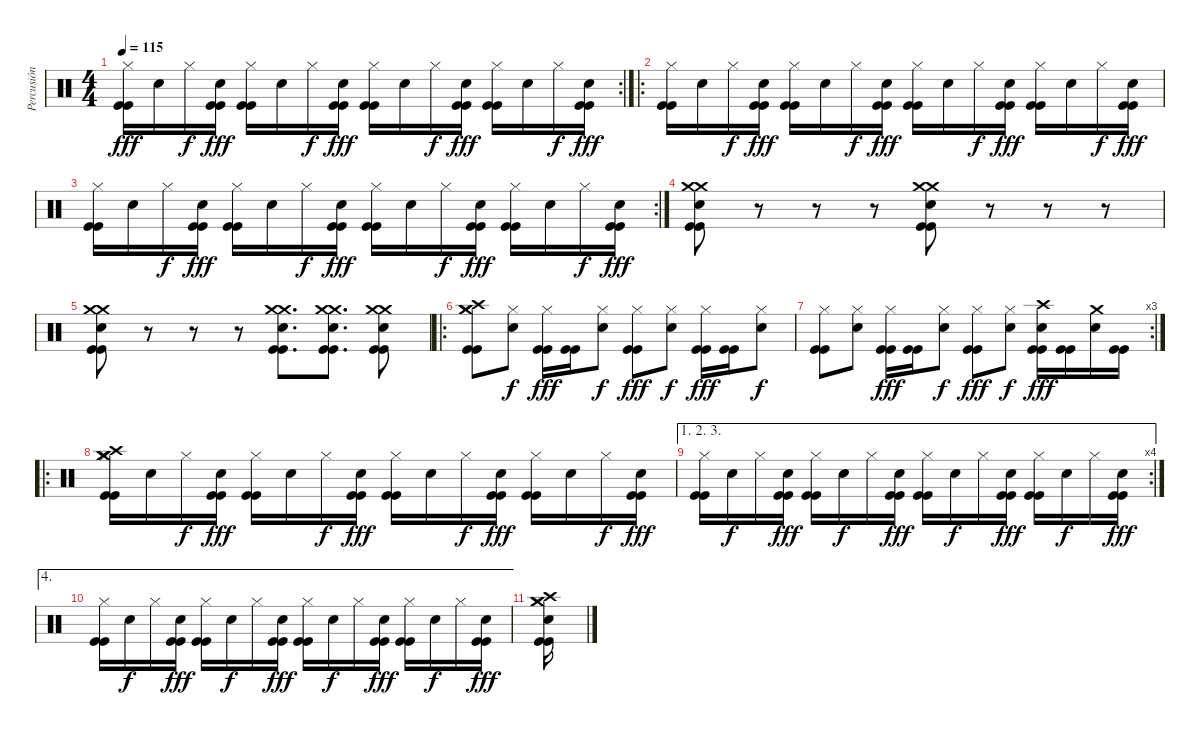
\track ("Percusión" "Percusión") {instrument percussion}
\staff {score}
\articulation defaults
\rc 2
\ts (4 4)
\tempo 115
\clef neutral
\ks c
("Kick (hit)" "Kick (hit)" "Hi-Hat (closed)").16{dy fff} "Electric Snare (hit)".16 "Hi-Hat (closed)".16{dy f} ("Kick (hit)" "Kick (hit)" "Electric Snare (hit)").16{dy fff} ("Kick (hit)" "Kick (hit)" "Hi-Hat (closed)").16 "Electric Snare (hit)".16 "Hi-Hat (closed)".16{dy f} ("Kick (hit)" "Kick (hit)" "Electric Snare (hit)").16{dy fff} ("Kick (hit)" "Kick (hit)" "Hi-Hat (closed)").16 "Electric Snare (hit)".16 "Hi-Hat (closed)".16{dy f} ("Kick (hit)" "Kick (hit)" "Electric Snare (hit)").16{dy fff} ("Kick (hit)" "Kick (hit)" "Hi-Hat (closed)").16 "Electric Snare (hit)".16 "Hi-Hat (closed)".16{dy f} ("Kick (hit)" "Kick (hit)" "Electric Snare (hit)").16{dy fff} |
\ro
("Kick (hit)" "Kick (hit)" "Hi-Hat (closed)").16 "Electric Snare (hit)".16 "Hi-Hat (closed)".16{dy f} ("Kick (hit)" "Kick (hit)" "Electric Snare (hit)").16{dy fff} ("Kick (hit)" "Kick (hit)" "Hi-Hat (closed)").16 "Electric Snare (hit)".16 "Hi-Hat (closed)".16{dy f} ("Kick (hit)" "Kick (hit)" "Electric Snare (hit)").16{dy fff} ("Kick (hit)" "Kick (hit)" "Hi-Hat (closed)").16 "Electric Snare (hit)".16 "Hi-Hat (closed)".16{dy f} ("Kick (hit)" "Kick (hit)" "Electric Snare (hit)").16{dy fff} ("Kick (hit)" "Kick (hit)" "Hi-Hat (closed)").16 "Electric Snare (hit)".16 "Hi-Hat (closed)".16{dy f} ("Kick (hit)" "Kick (hit)" "Electric Snare (hit)").16{dy fff} |
\rc 2
("Kick (hit)" "Kick (hit)" "Hi-Hat (closed)").16 "Electric Snare (hit)".16 "Hi-Hat (closed)".16{dy f} ("Kick (hit)" "Kick (hit)" "Electric Snare (hit)").16{dy fff} ("Kick (hit)" "Kick (hit)" "Hi-Hat (closed)").16 "Electric Snare (hit)".16 "Hi-Hat (closed)".16{dy f} ("Kick (hit)" "Kick (hit)" "Electric Snare (hit)").16{dy fff} ("Kick (hit)" "Kick (hit)" "Hi-Hat (closed)").16 "Electric Snare (hit)".16 "Hi-Hat (closed)".16{dy f} ("Kick (hit)" "Kick (hit)" "Electric Snare (hit)").16{dy fff} ("Kick (hit)" "Kick (hit)" "Hi-Hat (closed)").16 "Electric Snare (hit)".16 "Hi-Hat (closed)".16{dy f} ("Kick (hit)" "Kick (hit)" "Electric Snare (hit)").16{dy fff} |
("Kick (hit)" "Kick (hit)" "Crash medium (hit)" "Crash medium (hit)" "Electric Snare (hit)").8 r.8 r.8 r.8 ("Kick (hit)" "Kick (hit)" "Crash medium (hit)" "Crash medium (hit)" "Electric Snare (hit)").8 r.8 r.8 r.8 |
("Kick (hit)" "Kick (hit)" "Crash medium (hit)" "Crash medium (hit)" "Electric Snare (hit)").8 r.8 r.8 r.8 ("Kick (hit)" "Kick (hit)" "Crash medium (hit)" "Crash medium (hit)" "Electric Snare (hit)").8{d} ("Kick (hit)" "Kick (hit)" "Crash medium (hit)" "Crash medium (hit)" "Electric Snare (hit)").8{d} ("Kick (hit)" "Kick (hit)" "Crash medium (hit)" "Crash medium (hit)" "Electric Snare (hit)").8 |
\ro
("Kick (hit)" "Kick (hit)" "Crash medium (hit)" "Crash medium (hit)" "Crash high (hit)").8 ("Hi-Hat (closed)" "Electric Snare (hit)").8{dy f} ("Kick (hit)" "Kick (hit)" "Hi-Hat (closed)").16{dy fff} ("Kick (hit)" "Kick (hit)").16 ("Hi-Hat (closed)" "Electric Snare (hit)").8{dy f} ("Kick (hit)" "Kick (hit)" "Hi-Hat (closed)").8{dy fff} ("Hi-Hat (closed)" "Electric Snare (hit)").8{dy f} ("Kick (hit)" "Kick (hit)" "Hi-Hat (closed)").16{dy fff} ("Kick (hit)" "Kick (hit)").16 ("Hi-Hat (closed)" "Electric Snare (hit)").8{dy f} |
\rc 3
("Kick (hit)" "Kick (hit)" "Hi-Hat (closed)").8 ("Hi-Hat (closed)" "Electric Snare (hit)").8 ("Kick (hit)" "Kick (hit)" "Hi-Hat (closed)").16{dy fff} ("Kick (hit)" "Kick (hit)").16 ("Hi-Hat (closed)" "Electric Snare (hit)").8{dy f} ("Kick (hit)" "Kick (hit)" "Hi-Hat (closed)").8{dy fff} ("Hi-Hat (closed)" "Electric Snare (hit)").8{dy f} ("Kick (hit)" "Kick (hit)" "Crash high (hit)" "Electric Snare (hit)").16{dy fff} ("Kick (hit)" "Kick (hit)").16 ("Crash medium (hit)" "Electric Snare (hit)").16 ("Kick (hit)" "Kick (hit)").16 |
\ro
("Kick (hit)" "Kick (hit)" "Crash medium (hit)" "Crash medium (hit)" "Crash high (hit)" "Hi-Hat (closed)").16 "Electric Snare (hit)".16 "Hi-Hat (closed)".16{dy f} ("Kick (hit)" "Kick (hit)" "Electric Snare (hit)").16{dy fff} ("Kick (hit)" "Kick (hit)" "Hi-Hat (closed)").16 "Electric Snare (hit)".16 "Hi-Hat (closed)".16{dy f} ("Kick (hit)" "Kick (hit)" "Electric Snare (hit)").16{dy fff} ("Kick (hit)" "Kick (hit)" "Hi-Hat (closed)").16 "Electric Snare (hit)".16 "Hi-Hat (closed)".16{dy f} ("Kick (hit)" "Kick (hit)" "Electric Snare (hit)").16{dy fff} ("Kick (hit)" "Kick (hit)" "Hi-Hat (closed)").16 "Electric Snare (hit)".16 "Hi-Hat (closed)".16{dy f} ("Kick (hit)" "Kick (hit)" "Electric Snare (hit)").16{dy fff} |
\ae (1 2 3)
\rc 4
("Kick (hit)" "Kick (hit)" "Hi-Hat (closed)").16 "Electric Snare (hit)".16{dy f} "Hi-Hat (closed)".16 ("Kick (hit)" "Kick (hit)" "Electric Snare (hit)").16{dy fff} ("Kick (hit)" "Kick (hit)" "Hi-Hat (closed)").16 "Electric Snare (hit)".16{dy f} "Hi-Hat (closed)".16 ("Kick (hit)" "Kick (hit)" "Electric Snare (hit)").16{dy fff} ("Kick (hit)" "Kick (hit)" "Hi-Hat (closed)").16 "Electric Snare (hit)".16{dy f} "Hi-Hat (closed)".16 ("Kick (hit)" "Kick (hit)" "Electric Snare (hit)").16{dy fff} ("Kick (hit)" "Kick (hit)" "Hi-Hat (closed)").16 "Electric Snare (hit)".16{dy f} "Hi-Hat (closed)".16 ("Kick (hit)" "Kick (hit)" "Electric Snare (hit)").16{dy fff} |
\ae 4
("Kick (hit)" "Kick (hit)" "Hi-Hat (closed)").16 "Electric Snare (hit)".16{dy f} "Hi-Hat (closed)".16 ("Kick (hit)" "Kick (hit)" "Electric Snare (hit)").16{dy fff} ("Kick (hit)" "Kick (hit)" "Hi-Hat (closed)").16 "Electric Snare (hit)".16{dy f} "Hi-Hat (closed)".16 ("Kick (hit)" "Kick (hit)" "Electric Snare (hit)").16{dy fff} ("Kick (hit)" "Kick (hit)" "Hi-Hat (closed)").16 "Electric Snare (hit)".16{dy f} "Hi-Hat (closed)".16 ("Kick (hit)" "Kick (hit)" "Electric Snare (hit)").16{dy fff} ("Kick (hit)" "Kick (hit)" "Hi-Hat (closed)").16 "Electric Snare (hit)".16{dy f} "Hi-Hat (closed)".16 ("Kick (hit)" "Kick (hit)" "Electric Snare (hit)").16{dy fff} |
("Kick (hit)" "Kick (hit)" "Crash medium (hit)" "Crash medium (hit)" "Crash high (hit)" "Electric Snare (hit)").16
